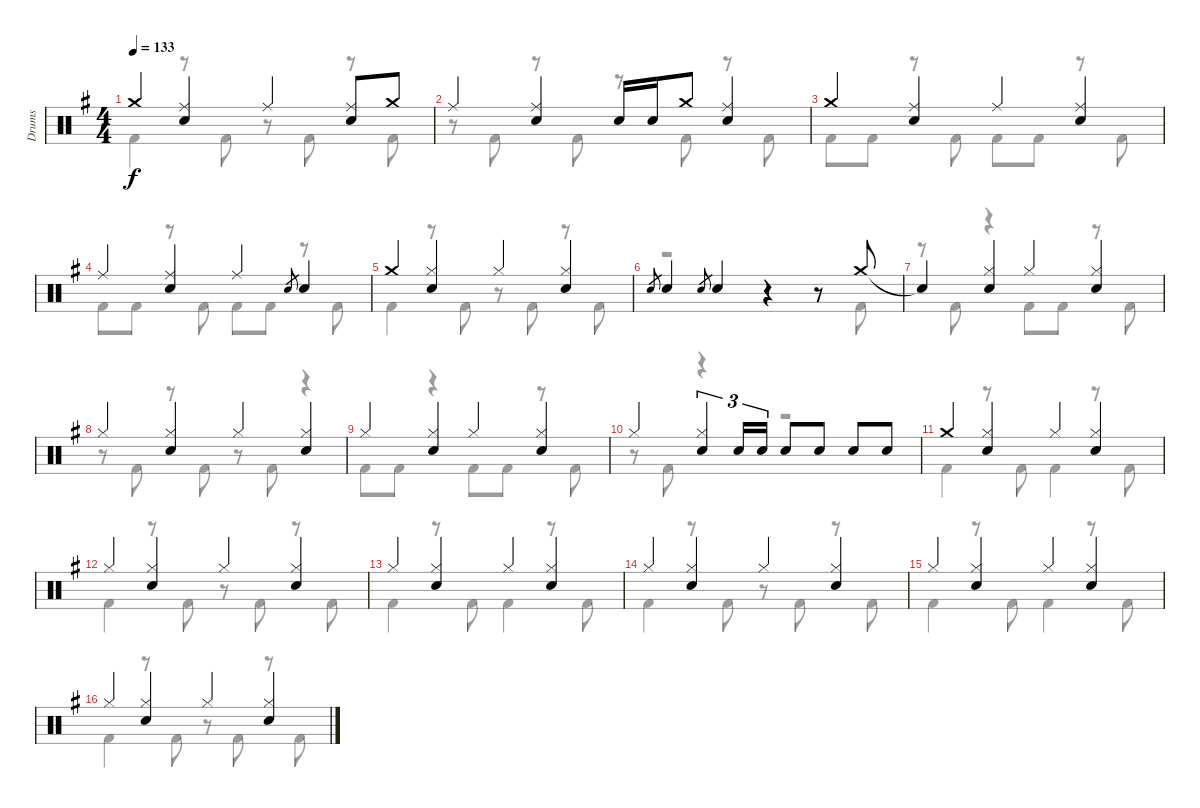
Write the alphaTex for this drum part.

\track ("Drums" "Drums") {instrument percussion}
\staff {score}
\articulation defaults
\voice
\ts (4 4)
\tempo 133
\clef neutral
\ks g "Crash medium (hit)".4{dy f}
("Ride (middle)" "Snare (hit) 2").4 "Ride (middle)".4 ("Ride (middle)" "Snare (hit) 2").8 "Crash medium (hit)".8 |
"Ride (middle)".4 ("Ride (middle)" "Snare (hit) 2").4 "Snare (hit) 2".16 "Snare (hit) 2".16 "Crash medium (hit)".8 ("Ride (middle)" "Snare (hit) 2").4 |
"Crash medium (hit)".4 ("Ride (middle)" "Snare (hit) 2").4 "Ride (middle)".4 ("Ride (middle)" "Snare (hit) 2").4 |
"Ride (middle)".4 ("Ride (middle)" "Snare (hit) 2").4 "Ride (middle)".4 "Snare (hit) 2".8{gr} "Snare (hit) 2".4 |
"Crash medium (hit)".4 ("Hi-Hat (closed)" "Snare (hit) 2").4 "Hi-Hat (closed)".4 ("Hi-Hat (closed)" "Snare (hit) 2").4 |
"Snare (hit) 2".8{gr} "Snare (hit) 2".4 "Snare (hit) 2".8{gr} "Snare (hit) 2".4 r.4 r.8 "Crash medium (hit)".8 |
"Snare (hit)"{t}.4 ("Hi-Hat (closed)" "Snare (hit) 2").4 "Hi-Hat (closed)".4 ("Hi-Hat (closed)" "Snare (hit) 2").4 |
"Hi-Hat (closed)".4 ("Hi-Hat (closed)" "Snare (hit) 2").4 "Hi-Hat (closed)".4 ("Hi-Hat (closed)" "Snare (hit) 2").4 |
"Hi-Hat (closed)".4 ("Hi-Hat (closed)" "Snare (hit) 2").4 "Hi-Hat (closed)".4 ("Hi-Hat (closed)" "Snare (hit) 2").4 |
"Hi-Hat (closed)".4 ("Hi-Hat (closed)" "Snare (hit) 2").4{tu (3 2)} "Snare (hit) 2".16{tu (3 2)} "Snare (hit) 2".16{tu (3 2)} "Snare (hit) 2".8 "Snare (hit) 2".8 "Snare (hit) 2".8 "Snare (hit) 2".8 |
"Crash medium (hit)".4 ("Hi-Hat (closed)" "Snare (hit) 2").4 "Hi-Hat (closed)".4 ("Hi-Hat (closed)" "Snare (hit) 2").4 |
"Hi-Hat (closed)".4 ("Hi-Hat (closed)" "Snare (hit) 2").4 "Hi-Hat (closed)".4 ("Hi-Hat (closed)" "Snare (hit) 2").4 |
"Hi-Hat (closed)".4 ("Hi-Hat (closed)" "Snare (hit) 2").4 "Hi-Hat (closed)".4 ("Hi-Hat (closed)" "Snare (hit) 2").4 |
"Hi-Hat (closed)".4 ("Hi-Hat (closed)" "Snare (hit) 2").4 "Hi-Hat (closed)".4 ("Hi-Hat (closed)" "Snare (hit) 2").4 |
"Hi-Hat (closed)".4 ("Hi-Hat (closed)" "Snare (hit) 2").4 "Hi-Hat (closed)".4 ("Hi-Hat (closed)" "Snare (hit) 2").4 |
"Hi-Hat (closed)".4 ("Hi-Hat (closed)" "Snare (hit) 2").4 "Hi-Hat (closed)".4 ("Hi-Hat (closed)" "Snare (hit) 2").4
\voice
\clef neutral
\ottava regular
\simile none
\ks g "Kick (hit) 2".4{dy f}
r.8 "Kick (hit) 2".8 r.8 "Kick (hit) 2".8 r.8 "Kick (hit) 2".8 |
r.8 "Kick (hit) 2".8 r.8 "Kick (hit) 2".8 r.8 "Kick (hit) 2".8 r.8 "Kick (hit) 2".8 |
"Kick (hit) 2".8 "Kick (hit) 2".8 r.8 "Kick (hit) 2".8 "Kick (hit) 2".8 "Kick (hit) 2".8 r.8 "Kick (hit) 2".8 |
"Kick (hit) 2".8 "Kick (hit) 2".8 r.8 "Kick (hit) 2".8 "Kick (hit) 2".8 "Kick (hit) 2".8 r.8 "Kick (hit) 2".8 |
"Kick (hit) 2".4 r.8 "Kick (hit) 2".8 r.8 "Kick (hit) 2".8 r.8 "Kick (hit) 2".8 |
r.2 r.4 r.8 "Kick (hit) 2".8 |
r.8 "Kick (hit) 2".8 r.4 "Kick (hit) 2".8 "Kick (hit) 2".8 r.8 "Kick (hit) 2".8 |
r.8 "Kick (hit) 2".8 r.8 "Kick (hit) 2".8 r.8 "Kick (hit) 2".8 r.4 |
"Kick (hit) 2".8 "Kick (hit) 2".8 r.4 "Kick (hit) 2".8 "Kick (hit) 2".8 r.8 "Kick (hit) 2".8 |
r.8 "Kick (hit) 2".8 r.4 r.2 |
"Kick (hit) 2".4 r.8 "Kick (hit) 2".8 "Kick (hit) 2".4 r.8 "Kick (hit) 2".8 |
"Kick (hit) 2".4 r.8 "Kick (hit) 2".8 r.8 "Kick (hit) 2".8 r.8 "Kick (hit) 2".8 |
"Kick (hit) 2".4 r.8 "Kick (hit) 2".8 "Kick (hit) 2".4 r.8 "Kick (hit) 2".8 |
"Kick (hit) 2".4 r.8 "Kick (hit) 2".8 r.8 "Kick (hit) 2".8 r.8 "Kick (hit) 2".8 |
"Kick (hit) 2".4 r.8 "Kick (hit) 2".8 "Kick (hit) 2".4 r.8 "Kick (hit) 2".8 |
"Kick (hit) 2".4 r.8 "Kick (hit) 2".8 r.8 "Kick (hit) 2".8 r.8 "Kick (hit) 2".8
